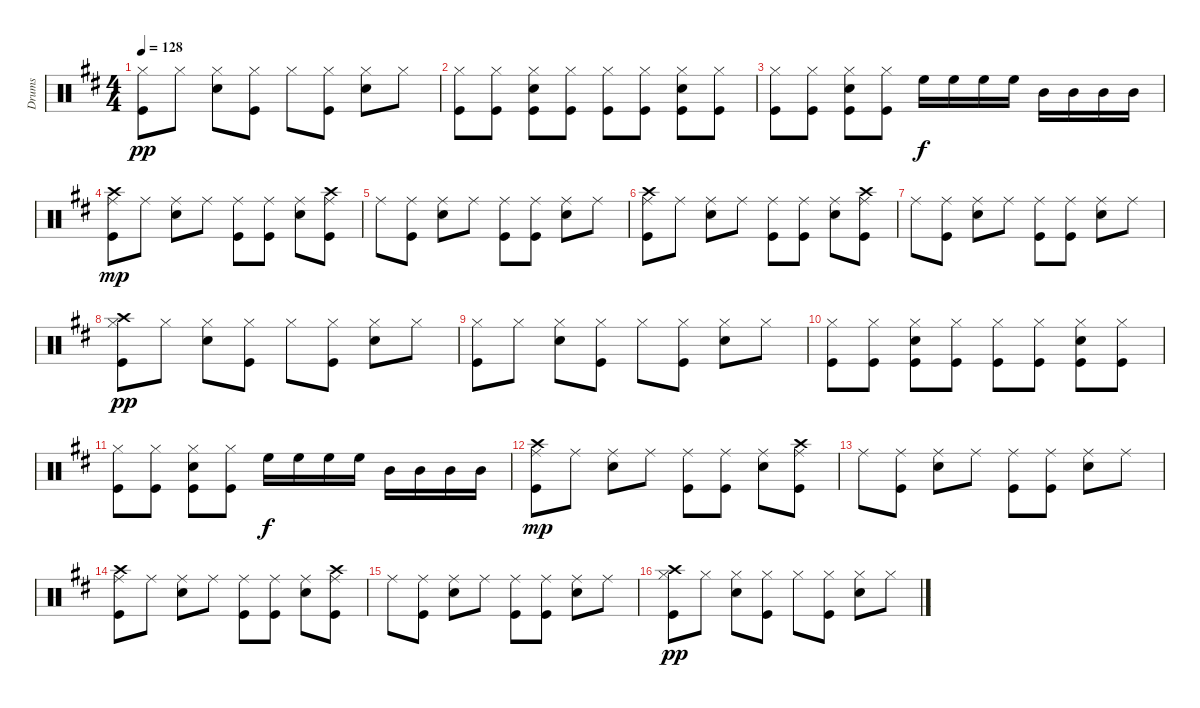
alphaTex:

\track ("Drums" "Drums") {instrument percussion}
\staff {score}
\articulation defaults
\ts (4 4)
\tempo 128
\clef neutral
\ks d
("Hi-Hat (closed)" "Kick (hit)").8{dy pp} "Hi-Hat (closed)".8 ("Hi-Hat (closed)" "Electric Snare (hit)").8 ("Hi-Hat (closed)" "Kick (hit)").8 "Hi-Hat (closed)".8 ("Hi-Hat (closed)" "Kick (hit)").8 ("Hi-Hat (closed)" "Electric Snare (hit)").8 "Hi-Hat (closed)".8 |
("Hi-Hat (closed)" "Kick (hit)").8 ("Hi-Hat (closed)" "Kick (hit)").8 ("Hi-Hat (closed)" "Electric Snare (hit)" "Kick (hit)").8 ("Hi-Hat (closed)" "Kick (hit)").8 ("Hi-Hat (closed)" "Kick (hit)").8 ("Hi-Hat (closed)" "Kick (hit)").8 ("Hi-Hat (closed)" "Electric Snare (hit)" "Kick (hit)").8 ("Hi-Hat (closed)" "Kick (hit)").8 |
("Hi-Hat (closed)" "Kick (hit)").8 ("Hi-Hat (closed)" "Kick (hit)").8 ("Hi-Hat (closed)" "Electric Snare (hit)" "Kick (hit)").8 ("Hi-Hat (closed)" "Kick (hit)").8 "High Floor Tom (hit)".16{dy f} "High Floor Tom (hit)".16 "High Floor Tom (hit)".16 "High Floor Tom (hit)".16 "Mid Tom (hit)".16 "Mid Tom (hit)".16 "Mid Tom (hit)".16 "Mid Tom (hit)".16 |
("Crash high (hit)" "Ride (middle)" "Kick (hit)").8{dy mp} "Ride (middle)".8 ("Ride (middle)" "Electric Snare (hit)").8 "Ride (middle)".8 ("Ride (middle)" "Kick (hit)").8 ("Ride (middle)" "Kick (hit)").8 ("Ride (middle)" "Electric Snare (hit)").8 ("Crash high (hit)" "Ride (middle)" "Kick (hit)").8 |
"Ride (middle)".8 ("Ride (middle)" "Kick (hit)").8 ("Ride (middle)" "Electric Snare (hit)").8 "Ride (middle)".8 ("Ride (middle)" "Kick (hit)").8 ("Ride (middle)" "Kick (hit)").8 ("Ride (middle)" "Electric Snare (hit)").8 "Ride (middle)".8 |
("Crash high (hit)" "Ride (middle)" "Kick (hit)").8 "Ride (middle)".8 ("Ride (middle)" "Electric Snare (hit)").8 "Ride (middle)".8 ("Ride (middle)" "Kick (hit)").8 ("Ride (middle)" "Kick (hit)").8 ("Ride (middle)" "Electric Snare (hit)").8 ("Crash high (hit)" "Ride (middle)" "Kick (hit)").8 |
"Ride (middle)".8 ("Ride (middle)" "Kick (hit)").8 ("Ride (middle)" "Electric Snare (hit)").8 "Ride (middle)".8 ("Ride (middle)" "Kick (hit)").8 ("Ride (middle)" "Kick (hit)").8 ("Ride (middle)" "Electric Snare (hit)").8 "Ride (middle)".8 |
("Crash high (hit)" "Hi-Hat (closed)" "Kick (hit)").8{dy pp} "Hi-Hat (closed)".8 ("Hi-Hat (closed)" "Electric Snare (hit)").8 ("Hi-Hat (closed)" "Kick (hit)").8 "Hi-Hat (closed)".8 ("Hi-Hat (closed)" "Kick (hit)").8 ("Hi-Hat (closed)" "Electric Snare (hit)").8 "Hi-Hat (closed)".8 |
("Hi-Hat (closed)" "Kick (hit)").8 "Hi-Hat (closed)".8 ("Hi-Hat (closed)" "Electric Snare (hit)").8 ("Hi-Hat (closed)" "Kick (hit)").8 "Hi-Hat (closed)".8 ("Hi-Hat (closed)" "Kick (hit)").8 ("Hi-Hat (closed)" "Electric Snare (hit)").8 "Hi-Hat (closed)".8 |
("Hi-Hat (closed)" "Kick (hit)").8 ("Hi-Hat (closed)" "Kick (hit)").8 ("Hi-Hat (closed)" "Electric Snare (hit)" "Kick (hit)").8 ("Hi-Hat (closed)" "Kick (hit)").8 ("Hi-Hat (closed)" "Kick (hit)").8 ("Hi-Hat (closed)" "Kick (hit)").8 ("Hi-Hat (closed)" "Electric Snare (hit)" "Kick (hit)").8 ("Hi-Hat (closed)" "Kick (hit)").8 |
("Hi-Hat (closed)" "Kick (hit)").8 ("Hi-Hat (closed)" "Kick (hit)").8 ("Hi-Hat (closed)" "Electric Snare (hit)" "Kick (hit)").8 ("Hi-Hat (closed)" "Kick (hit)").8 "High Floor Tom (hit)".16{dy f} "High Floor Tom (hit)".16 "High Floor Tom (hit)".16 "High Floor Tom (hit)".16 "Mid Tom (hit)".16 "Mid Tom (hit)".16 "Mid Tom (hit)".16 "Mid Tom (hit)".16 |
("Crash high (hit)" "Ride (middle)" "Kick (hit)").8{dy mp} "Ride (middle)".8 ("Ride (middle)" "Electric Snare (hit)").8 "Ride (middle)".8 ("Ride (middle)" "Kick (hit)").8 ("Ride (middle)" "Kick (hit)").8 ("Ride (middle)" "Electric Snare (hit)").8 ("Crash high (hit)" "Ride (middle)" "Kick (hit)").8 |
"Ride (middle)".8 ("Ride (middle)" "Kick (hit)").8 ("Ride (middle)" "Electric Snare (hit)").8 "Ride (middle)".8 ("Ride (middle)" "Kick (hit)").8 ("Ride (middle)" "Kick (hit)").8 ("Ride (middle)" "Electric Snare (hit)").8 "Ride (middle)".8 |
("Crash high (hit)" "Ride (middle)" "Kick (hit)").8 "Ride (middle)".8 ("Ride (middle)" "Electric Snare (hit)").8 "Ride (middle)".8 ("Ride (middle)" "Kick (hit)").8 ("Ride (middle)" "Kick (hit)").8 ("Ride (middle)" "Electric Snare (hit)").8 ("Crash high (hit)" "Ride (middle)" "Kick (hit)").8 |
"Ride (middle)".8 ("Ride (middle)" "Kick (hit)").8 ("Ride (middle)" "Electric Snare (hit)").8 "Ride (middle)".8 ("Ride (middle)" "Kick (hit)").8 ("Ride (middle)" "Kick (hit)").8 ("Ride (middle)" "Electric Snare (hit)").8 "Ride (middle)".8 |
("Crash high (hit)" "Hi-Hat (closed)" "Kick (hit)").8{dy pp} "Hi-Hat (closed)".8 ("Hi-Hat (closed)" "Electric Snare (hit)").8 ("Hi-Hat (closed)" "Kick (hit)").8 "Hi-Hat (closed)".8 ("Hi-Hat (closed)" "Kick (hit)").8 ("Hi-Hat (closed)" "Electric Snare (hit)").8 "Hi-Hat (closed)".8
